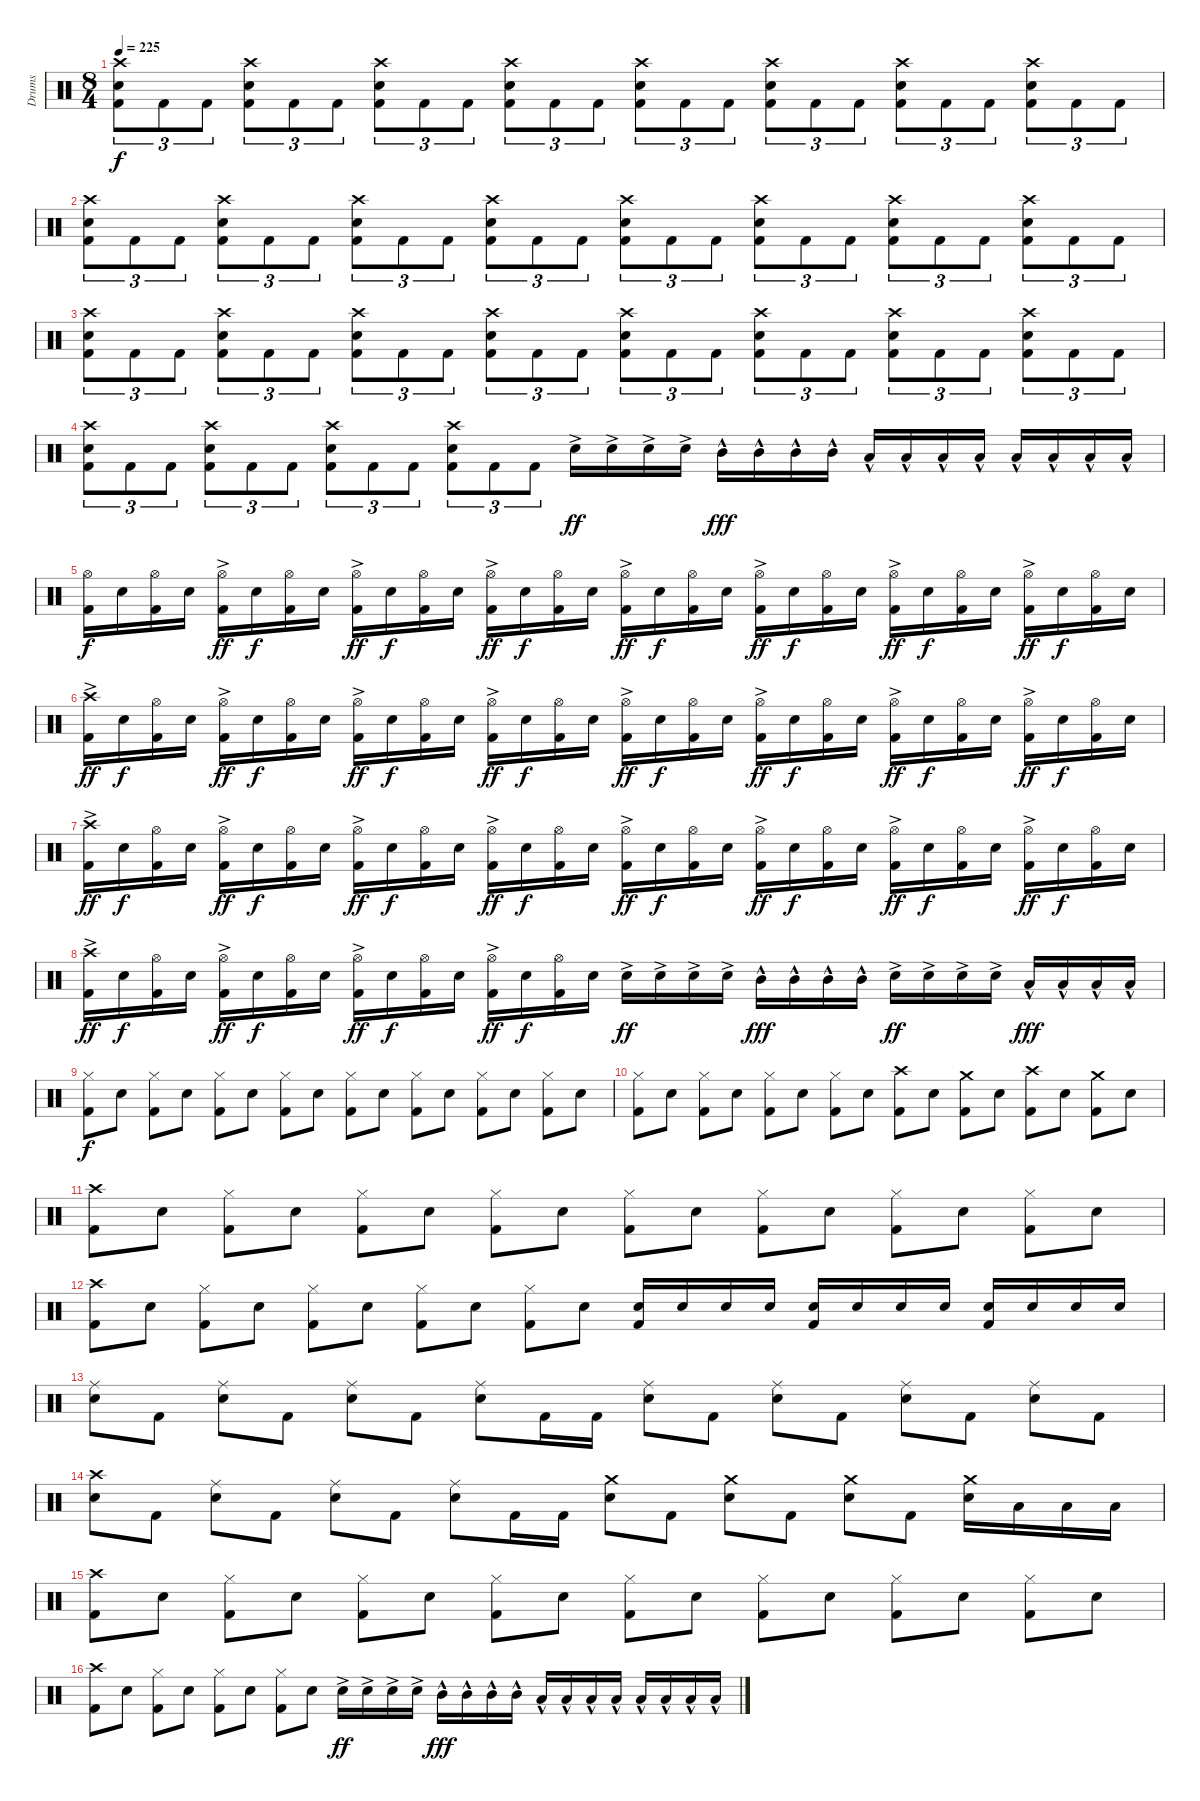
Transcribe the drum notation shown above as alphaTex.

\track ("Drums" "Drums") {instrument percussion}
\staff {score}
\articulation defaults
\ts (8 4)
\tempo 225
\clef neutral
\ks c
("Crash high (hit)" "Electric Snare (hit)" "Kick (hit) 2").8{tu (3 2) dy f} "Kick (hit) 2".8{tu (3 2)} "Kick (hit) 2".8{tu (3 2)} ("Crash high (hit)" "Electric Snare (hit)" "Kick (hit) 2").8{tu (3 2)} "Kick (hit) 2".8{tu (3 2)} "Kick (hit) 2".8{tu (3 2)} ("Crash high (hit)" "Electric Snare (hit)" "Kick (hit) 2").8{tu (3 2)} "Kick (hit) 2".8{tu (3 2)} "Kick (hit) 2".8{tu (3 2)} ("Crash high (hit)" "Electric Snare (hit)" "Kick (hit) 2").8{tu (3 2)} "Kick (hit) 2".8{tu (3 2)} "Kick (hit) 2".8{tu (3 2)} ("Crash high (hit)" "Electric Snare (hit)" "Kick (hit) 2").8{tu (3 2)} "Kick (hit) 2".8{tu (3 2)} "Kick (hit) 2".8{tu (3 2)} ("Crash high (hit)" "Electric Snare (hit)" "Kick (hit) 2").8{tu (3 2)} "Kick (hit) 2".8{tu (3 2)} "Kick (hit) 2".8{tu (3 2)} ("Crash high (hit)" "Electric Snare (hit)" "Kick (hit) 2").8{tu (3 2)} "Kick (hit) 2".8{tu (3 2)} "Kick (hit) 2".8{tu (3 2)} ("Crash high (hit)" "Electric Snare (hit)" "Kick (hit) 2").8{tu (3 2)} "Kick (hit) 2".8{tu (3 2)} "Kick (hit) 2".8{tu (3 2)} |
("Crash high (hit)" "Electric Snare (hit)" "Kick (hit) 2").8{tu (3 2)} "Kick (hit) 2".8{tu (3 2)} "Kick (hit) 2".8{tu (3 2)} ("Crash high (hit)" "Electric Snare (hit)" "Kick (hit) 2").8{tu (3 2)} "Kick (hit) 2".8{tu (3 2)} "Kick (hit) 2".8{tu (3 2)} ("Crash high (hit)" "Electric Snare (hit)" "Kick (hit) 2").8{tu (3 2)} "Kick (hit) 2".8{tu (3 2)} "Kick (hit) 2".8{tu (3 2)} ("Crash high (hit)" "Electric Snare (hit)" "Kick (hit) 2").8{tu (3 2)} "Kick (hit) 2".8{tu (3 2)} "Kick (hit) 2".8{tu (3 2)} ("Crash high (hit)" "Electric Snare (hit)" "Kick (hit) 2").8{tu (3 2)} "Kick (hit) 2".8{tu (3 2)} "Kick (hit) 2".8{tu (3 2)} ("Crash high (hit)" "Electric Snare (hit)" "Kick (hit) 2").8{tu (3 2)} "Kick (hit) 2".8{tu (3 2)} "Kick (hit) 2".8{tu (3 2)} ("Crash high (hit)" "Electric Snare (hit)" "Kick (hit) 2").8{tu (3 2)} "Kick (hit) 2".8{tu (3 2)} "Kick (hit) 2".8{tu (3 2)} ("Crash high (hit)" "Electric Snare (hit)" "Kick (hit) 2").8{tu (3 2)} "Kick (hit) 2".8{tu (3 2)} "Kick (hit) 2".8{tu (3 2)} |
("Crash high (hit)" "Electric Snare (hit)" "Kick (hit) 2").8{tu (3 2)} "Kick (hit) 2".8{tu (3 2)} "Kick (hit) 2".8{tu (3 2)} ("Crash high (hit)" "Electric Snare (hit)" "Kick (hit) 2").8{tu (3 2)} "Kick (hit) 2".8{tu (3 2)} "Kick (hit) 2".8{tu (3 2)} ("Crash high (hit)" "Electric Snare (hit)" "Kick (hit) 2").8{tu (3 2)} "Kick (hit) 2".8{tu (3 2)} "Kick (hit) 2".8{tu (3 2)} ("Crash high (hit)" "Electric Snare (hit)" "Kick (hit) 2").8{tu (3 2)} "Kick (hit) 2".8{tu (3 2)} "Kick (hit) 2".8{tu (3 2)} ("Crash high (hit)" "Electric Snare (hit)" "Kick (hit) 2").8{tu (3 2)} "Kick (hit) 2".8{tu (3 2)} "Kick (hit) 2".8{tu (3 2)} ("Crash high (hit)" "Electric Snare (hit)" "Kick (hit) 2").8{tu (3 2)} "Kick (hit) 2".8{tu (3 2)} "Kick (hit) 2".8{tu (3 2)} ("Crash high (hit)" "Electric Snare (hit)" "Kick (hit) 2").8{tu (3 2)} "Kick (hit) 2".8{tu (3 2)} "Kick (hit) 2".8{tu (3 2)} ("Crash high (hit)" "Electric Snare (hit)" "Kick (hit) 2").8{tu (3 2)} "Kick (hit) 2".8{tu (3 2)} "Kick (hit) 2".8{tu (3 2)} |
("Crash high (hit)" "Electric Snare (hit)" "Kick (hit) 2").8{tu (3 2)} "Kick (hit) 2".8{tu (3 2)} "Kick (hit) 2".8{tu (3 2)} ("Crash high (hit)" "Electric Snare (hit)" "Kick (hit) 2").8{tu (3 2)} "Kick (hit) 2".8{tu (3 2)} "Kick (hit) 2".8{tu (3 2)} ("Crash high (hit)" "Electric Snare (hit)" "Kick (hit) 2").8{tu (3 2)} "Kick (hit) 2".8{tu (3 2)} "Kick (hit) 2".8{tu (3 2)} ("Crash high (hit)" "Electric Snare (hit)" "Kick (hit) 2").8{tu (3 2)} "Kick (hit) 2".8{tu (3 2)} "Kick (hit) 2".8{tu (3 2)} "Electric Snare (hit)"{ac}.16{dy ff} "Electric Snare (hit)"{ac}.16 "Electric Snare (hit)"{ac}.16 "Electric Snare (hit)"{ac}.16 "Mid Tom (hit)"{hac}.16{dy fff} "Mid Tom (hit)"{hac}.16 "Mid Tom (hit)"{hac}.16 "Mid Tom (hit)"{hac}.16 "Low Tom (hit)"{hac}.16 "Low Tom (hit)"{hac}.16 "Low Tom (hit)"{hac}.16 "Low Tom (hit)"{hac}.16 "Low Floor Tom (hit)"{hac}.16 "Low Floor Tom (hit)"{hac}.16 "Low Floor Tom (hit)"{hac}.16 "Low Floor Tom (hit)"{hac}.16 |
("Hi-Hat (open)" "Kick (hit) 2").16{dy f} "Electric Snare (hit)".16 ("Hi-Hat (open)" "Kick (hit) 2").16 "Electric Snare (hit)".16 ("Hi-Hat (open)"{ac} "Kick (hit) 2").16{dy ff} "Electric Snare (hit)".16{dy f} ("Hi-Hat (open)" "Kick (hit) 2").16 "Electric Snare (hit)".16 ("Hi-Hat (open)"{ac} "Kick (hit) 2").16{dy ff} "Electric Snare (hit)".16{dy f} ("Hi-Hat (open)" "Kick (hit) 2").16 "Electric Snare (hit)".16 ("Hi-Hat (open)"{ac} "Kick (hit) 2").16{dy ff} "Electric Snare (hit)".16{dy f} ("Hi-Hat (open)" "Kick (hit) 2").16 "Electric Snare (hit)".16 ("Hi-Hat (open)"{ac} "Kick (hit) 2").16{dy ff} "Electric Snare (hit)".16{dy f} ("Hi-Hat (open)" "Kick (hit) 2").16 "Electric Snare (hit)".16 ("Hi-Hat (open)"{ac} "Kick (hit) 2").16{dy ff} "Electric Snare (hit)".16{dy f} ("Hi-Hat (open)" "Kick (hit) 2").16 "Electric Snare (hit)".16 ("Hi-Hat (open)"{ac} "Kick (hit) 2").16{dy ff} "Electric Snare (hit)".16{dy f} ("Hi-Hat (open)" "Kick (hit) 2").16 "Electric Snare (hit)".16 ("Hi-Hat (open)"{ac} "Kick (hit) 2").16{dy ff} "Electric Snare (hit)".16{dy f} ("Hi-Hat (open)" "Kick (hit) 2").16 "Electric Snare (hit)".16 |
("Crash high (hit)"{ac} "Kick (hit) 2").16{dy ff} "Electric Snare (hit)".16{dy f} ("Hi-Hat (open)" "Kick (hit) 2").16 "Electric Snare (hit)".16 ("Hi-Hat (open)"{ac} "Kick (hit) 2").16{dy ff} "Electric Snare (hit)".16{dy f} ("Hi-Hat (open)" "Kick (hit) 2").16 "Electric Snare (hit)".16 ("Hi-Hat (open)"{ac} "Kick (hit) 2").16{dy ff} "Electric Snare (hit)".16{dy f} ("Hi-Hat (open)" "Kick (hit) 2").16 "Electric Snare (hit)".16 ("Hi-Hat (open)"{ac} "Kick (hit) 2").16{dy ff} "Electric Snare (hit)".16{dy f} ("Hi-Hat (open)" "Kick (hit) 2").16 "Electric Snare (hit)".16 ("Hi-Hat (open)"{ac} "Kick (hit) 2").16{dy ff} "Electric Snare (hit)".16{dy f} ("Hi-Hat (open)" "Kick (hit) 2").16 "Electric Snare (hit)".16 ("Hi-Hat (open)"{ac} "Kick (hit) 2").16{dy ff} "Electric Snare (hit)".16{dy f} ("Hi-Hat (open)" "Kick (hit) 2").16 "Electric Snare (hit)".16 ("Hi-Hat (open)"{ac} "Kick (hit) 2").16{dy ff} "Electric Snare (hit)".16{dy f} ("Hi-Hat (open)" "Kick (hit) 2").16 "Electric Snare (hit)".16 ("Hi-Hat (open)"{ac} "Kick (hit) 2").16{dy ff} "Electric Snare (hit)".16{dy f} ("Hi-Hat (open)" "Kick (hit) 2").16 "Electric Snare (hit)".16 |
("Crash high (hit)"{ac} "Kick (hit) 2").16{dy ff} "Electric Snare (hit)".16{dy f} ("Hi-Hat (open)" "Kick (hit) 2").16 "Electric Snare (hit)".16 ("Hi-Hat (open)"{ac} "Kick (hit) 2").16{dy ff} "Electric Snare (hit)".16{dy f} ("Hi-Hat (open)" "Kick (hit) 2").16 "Electric Snare (hit)".16 ("Hi-Hat (open)"{ac} "Kick (hit) 2").16{dy ff} "Electric Snare (hit)".16{dy f} ("Hi-Hat (open)" "Kick (hit) 2").16 "Electric Snare (hit)".16 ("Hi-Hat (open)"{ac} "Kick (hit) 2").16{dy ff} "Electric Snare (hit)".16{dy f} ("Hi-Hat (open)" "Kick (hit) 2").16 "Electric Snare (hit)".16 ("Hi-Hat (open)"{ac} "Kick (hit) 2").16{dy ff} "Electric Snare (hit)".16{dy f} ("Hi-Hat (open)" "Kick (hit) 2").16 "Electric Snare (hit)".16 ("Hi-Hat (open)"{ac} "Kick (hit) 2").16{dy ff} "Electric Snare (hit)".16{dy f} ("Hi-Hat (open)" "Kick (hit) 2").16 "Electric Snare (hit)".16 ("Hi-Hat (open)"{ac} "Kick (hit) 2").16{dy ff} "Electric Snare (hit)".16{dy f} ("Hi-Hat (open)" "Kick (hit) 2").16 "Electric Snare (hit)".16 ("Hi-Hat (open)"{ac} "Kick (hit) 2").16{dy ff} "Electric Snare (hit)".16{dy f} ("Hi-Hat (open)" "Kick (hit) 2").16 "Electric Snare (hit)".16 |
("Crash high (hit)"{ac} "Kick (hit) 2").16{dy ff} "Electric Snare (hit)".16{dy f} ("Hi-Hat (open)" "Kick (hit) 2").16 "Electric Snare (hit)".16 ("Hi-Hat (open)"{ac} "Kick (hit) 2").16{dy ff} "Electric Snare (hit)".16{dy f} ("Hi-Hat (open)" "Kick (hit) 2").16 "Electric Snare (hit)".16 ("Hi-Hat (open)"{ac} "Kick (hit) 2").16{dy ff} "Electric Snare (hit)".16{dy f} ("Hi-Hat (open)" "Kick (hit) 2").16 "Electric Snare (hit)".16 ("Hi-Hat (open)"{ac} "Kick (hit) 2").16{dy ff} "Electric Snare (hit)".16{dy f} ("Hi-Hat (open)" "Kick (hit) 2").16 "Electric Snare (hit)".16 "Electric Snare (hit)"{ac}.16{dy ff} "Electric Snare (hit)"{ac}.16 "Electric Snare (hit)"{ac}.16 "Electric Snare (hit)"{ac}.16 "Mid Tom (hit)"{hac}.16{dy fff} "Mid Tom (hit)"{hac}.16 "Mid Tom (hit)"{hac}.16 "Mid Tom (hit)"{hac}.16 "Electric Snare (hit)"{ac}.16{dy ff} "Electric Snare (hit)"{ac}.16 "Electric Snare (hit)"{ac}.16 "Electric Snare (hit)"{ac}.16 "Low Tom (hit)"{hac}.16{dy fff} "Low Tom (hit)"{hac}.16 "Low Tom (hit)"{hac}.16 "Low Tom (hit)"{hac}.16 |
("Hi-Hat (closed)" "Kick (hit) 2").8{dy f} "Electric Snare (hit)".8 ("Hi-Hat (closed)" "Kick (hit) 2").8 "Electric Snare (hit)".8 ("Hi-Hat (closed)" "Kick (hit) 2").8 "Electric Snare (hit)".8 ("Hi-Hat (closed)" "Kick (hit) 2").8 "Electric Snare (hit)".8 ("Hi-Hat (closed)" "Kick (hit) 2").8 "Electric Snare (hit)".8 ("Hi-Hat (closed)" "Kick (hit) 2").8 "Electric Snare (hit)".8 ("Hi-Hat (closed)" "Kick (hit) 2").8 "Electric Snare (hit)".8 ("Hi-Hat (closed)" "Kick (hit) 2").8 "Electric Snare (hit)".8 |
("Hi-Hat (closed)" "Kick (hit) 2").8 "Electric Snare (hit)".8 ("Hi-Hat (closed)" "Kick (hit) 2").8 "Electric Snare (hit)".8 ("Hi-Hat (closed)" "Kick (hit) 2").8 "Electric Snare (hit)".8 ("Hi-Hat (closed)" "Kick (hit) 2").8 "Electric Snare (hit)".8 ("Crash high (hit)" "Kick (hit) 2").8 "Electric Snare (hit)".8 ("Crash medium (hit)" "Kick (hit) 2").8 "Electric Snare (hit)".8 ("Crash high (hit)" "Kick (hit) 2").8 "Electric Snare (hit)".8 ("Crash medium (hit)" "Kick (hit) 2").8 "Electric Snare (hit)".8 |
("Crash high (hit)" "Kick (hit) 2").8 "Electric Snare (hit)".8 ("Hi-Hat (closed)" "Kick (hit) 2").8 "Electric Snare (hit)".8 ("Hi-Hat (closed)" "Kick (hit) 2").8 "Electric Snare (hit)".8 ("Hi-Hat (closed)" "Kick (hit) 2").8 "Electric Snare (hit)".8 ("Hi-Hat (closed)" "Kick (hit) 2").8 "Electric Snare (hit)".8 ("Hi-Hat (closed)" "Kick (hit) 2").8 "Electric Snare (hit)".8 ("Hi-Hat (closed)" "Kick (hit) 2").8 "Electric Snare (hit)".8 ("Hi-Hat (closed)" "Kick (hit) 2").8 "Electric Snare (hit)".8 |
("Crash high (hit)" "Kick (hit) 2").8 "Electric Snare (hit)".8 ("Hi-Hat (closed)" "Kick (hit) 2").8 "Electric Snare (hit)".8 ("Hi-Hat (closed)" "Kick (hit) 2").8 "Electric Snare (hit)".8 ("Hi-Hat (closed)" "Kick (hit) 2").8 "Electric Snare (hit)".8 ("Hi-Hat (closed)" "Kick (hit) 2").8 "Electric Snare (hit)".8 ("Electric Snare (hit)" "Kick (hit) 2").16 "Electric Snare (hit)".16 "Electric Snare (hit)".16 "Electric Snare (hit)".16 ("Electric Snare (hit)" "Kick (hit) 2").16 "Electric Snare (hit)".16 "Electric Snare (hit)".16 "Electric Snare (hit)".16 ("Electric Snare (hit)" "Kick (hit) 2").16 "Electric Snare (hit)".16 "Electric Snare (hit)".16 "Electric Snare (hit)".16 |
("Ride (middle)" "Electric Snare (hit)").8 "Kick (hit) 2".8 ("Ride (middle)" "Electric Snare (hit)").8 "Kick (hit) 2".8 ("Ride (middle)" "Electric Snare (hit)").8 "Kick (hit) 2".8 ("Ride (middle)" "Electric Snare (hit)").8 "Kick (hit) 2".16 "Kick (hit) 2".16 ("Ride (middle)" "Electric Snare (hit)").8 "Kick (hit) 2".8 ("Ride (middle)" "Electric Snare (hit)").8 "Kick (hit) 2".8 ("Ride (middle)" "Electric Snare (hit)").8 "Kick (hit) 2".8 ("Ride (middle)" "Electric Snare (hit)").8 "Kick (hit) 2".8 |
("Crash high (hit)" "Electric Snare (hit)").8 "Kick (hit) 2".8 ("Ride (middle)" "Electric Snare (hit)").8 "Kick (hit) 2".8 ("Ride (middle)" "Electric Snare (hit)").8 "Kick (hit) 2".8 ("Ride (middle)" "Electric Snare (hit)").8 "Kick (hit) 2".16 "Kick (hit) 2".16 ("Crash medium (hit)" "Electric Snare (hit)").8 "Kick (hit) 2".8 ("Crash medium (hit)" "Electric Snare (hit)").8 "Kick (hit) 2".8 ("Crash medium (hit)" "Electric Snare (hit)").8 "Kick (hit) 2".8 ("Crash medium (hit)" "Electric Snare (hit)").16 "Low Tom (hit)".16 "Low Tom (hit)".16 "Low Tom (hit)".16 |
("Crash high (hit)" "Kick (hit) 2").8 "Electric Snare (hit)".8 ("Hi-Hat (closed)" "Kick (hit) 2").8 "Electric Snare (hit)".8 ("Hi-Hat (closed)" "Kick (hit) 2").8 "Electric Snare (hit)".8 ("Hi-Hat (closed)" "Kick (hit) 2").8 "Electric Snare (hit)".8 ("Hi-Hat (closed)" "Kick (hit) 2").8 "Electric Snare (hit)".8 ("Hi-Hat (closed)" "Kick (hit) 2").8 "Electric Snare (hit)".8 ("Hi-Hat (closed)" "Kick (hit) 2").8 "Electric Snare (hit)".8 ("Hi-Hat (closed)" "Kick (hit) 2").8 "Electric Snare (hit)".8 |
("Crash high (hit)" "Kick (hit) 2").8 "Electric Snare (hit)".8 ("Hi-Hat (closed)" "Kick (hit) 2").8 "Electric Snare (hit)".8 ("Hi-Hat (closed)" "Kick (hit) 2").8 "Electric Snare (hit)".8 ("Hi-Hat (closed)" "Kick (hit) 2").8 "Electric Snare (hit)".8 "Electric Snare (hit)"{ac}.16{dy ff} "Electric Snare (hit)"{ac}.16 "Electric Snare (hit)"{ac}.16 "Electric Snare (hit)"{ac}.16 "Mid Tom (hit)"{hac}.16{dy fff} "Mid Tom (hit)"{hac}.16 "Mid Tom (hit)"{hac}.16 "Mid Tom (hit)"{hac}.16 "Low Tom (hit)"{hac}.16 "Low Tom (hit)"{hac}.16 "Low Tom (hit)"{hac}.16 "Low Tom (hit)"{hac}.16 "Low Floor Tom (hit)"{hac}.16 "Low Floor Tom (hit)"{hac}.16 "Low Floor Tom (hit)"{hac}.16 "Low Floor Tom (hit)"{hac}.16
